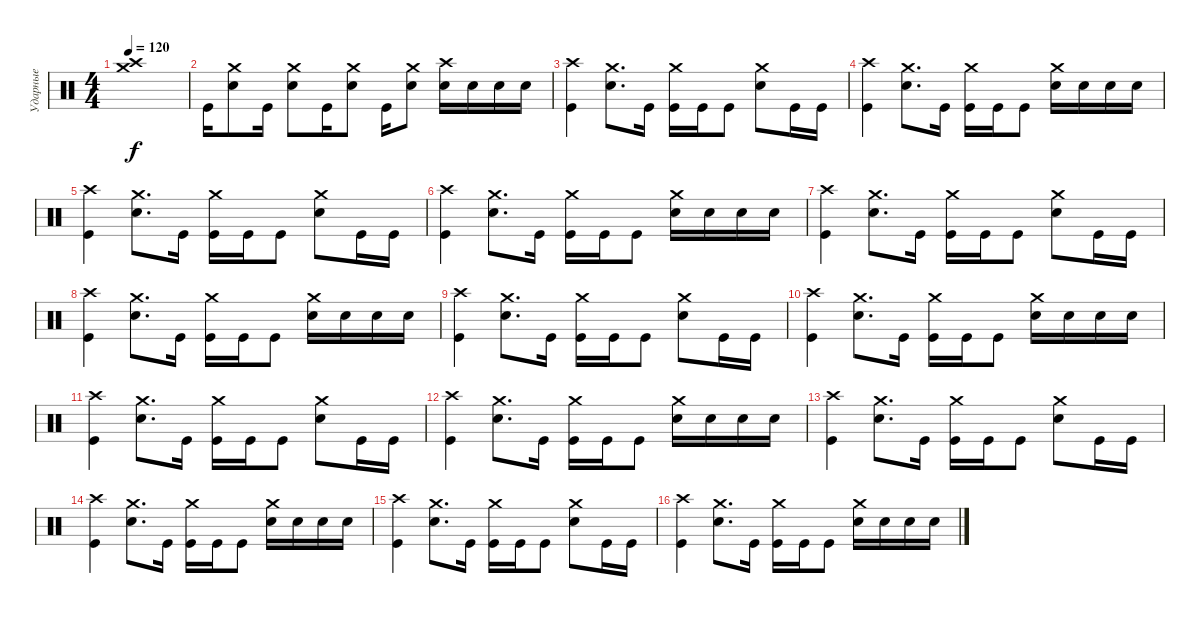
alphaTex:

\track ("Ударные" "Ударные") {instrument percussion}
\staff {score}
\articulation defaults
\ts (4 4)
\tempo 120
\clef neutral
\ks c
("Crash medium (hit)" "Crash high (hit)").1{dy f} |
"Kick (hit)".16 ("Snare (hit) 2" "Crash medium (hit)").8 "Kick (hit)".16 ("Snare (hit) 2" "Crash medium (hit)").8 "Kick (hit)".16 ("Snare (hit) 2" "Crash medium (hit)").8 "Kick (hit)".16 ("Snare (hit) 2" "Crash medium (hit)").8 ("Snare (hit) 2" "Crash high (hit)").16 "Snare (hit) 2".16 "Snare (hit) 2".16 "Snare (hit) 2".16 |
("Kick (hit)" "Crash high (hit)").4 ("Snare (hit) 2" "Crash medium (hit)").8{d} "Kick (hit)".16 ("Kick (hit)" "Crash medium (hit)").16 "Kick (hit)".16 "Kick (hit)".8 ("Snare (hit) 2" "Crash medium (hit)").8 "Kick (hit)".16 "Kick (hit)".16 |
("Kick (hit)" "Crash high (hit)").4 ("Snare (hit) 2" "Crash medium (hit)").8{d} "Kick (hit)".16 ("Kick (hit)" "Crash medium (hit)").16 "Kick (hit)".16 "Kick (hit)".8 ("Snare (hit) 2" "Crash medium (hit)").16 "Snare (hit) 2".16 "Snare (hit) 2".16 "Snare (hit) 2".16 |
("Kick (hit)" "Crash high (hit)").4 ("Snare (hit) 2" "Crash medium (hit)").8{d} "Kick (hit)".16 ("Kick (hit)" "Crash medium (hit)").16 "Kick (hit)".16 "Kick (hit)".8 ("Snare (hit) 2" "Crash medium (hit)").8 "Kick (hit)".16 "Kick (hit)".16 |
("Kick (hit)" "Crash high (hit)").4 ("Snare (hit) 2" "Crash medium (hit)").8{d} "Kick (hit)".16 ("Kick (hit)" "Crash medium (hit)").16 "Kick (hit)".16 "Kick (hit)".8 ("Snare (hit) 2" "Crash medium (hit)").16 "Snare (hit) 2".16 "Snare (hit) 2".16 "Snare (hit) 2".16 |
("Kick (hit)" "Crash high (hit)").4 ("Snare (hit) 2" "Crash medium (hit)").8{d} "Kick (hit)".16 ("Kick (hit)" "Crash medium (hit)").16 "Kick (hit)".16 "Kick (hit)".8 ("Snare (hit) 2" "Crash medium (hit)").8 "Kick (hit)".16 "Kick (hit)".16 |
("Kick (hit)" "Crash high (hit)").4 ("Snare (hit) 2" "Crash medium (hit)").8{d} "Kick (hit)".16 ("Kick (hit)" "Crash medium (hit)").16 "Kick (hit)".16 "Kick (hit)".8 ("Snare (hit) 2" "Crash medium (hit)").16 "Snare (hit) 2".16 "Snare (hit) 2".16 "Snare (hit) 2".16 |
("Kick (hit)" "Crash high (hit)").4 ("Snare (hit) 2" "Crash medium (hit)").8{d} "Kick (hit)".16 ("Kick (hit)" "Crash medium (hit)").16 "Kick (hit)".16 "Kick (hit)".8 ("Snare (hit) 2" "Crash medium (hit)").8 "Kick (hit)".16 "Kick (hit)".16 |
("Kick (hit)" "Crash high (hit)").4 ("Snare (hit) 2" "Crash medium (hit)").8{d} "Kick (hit)".16 ("Kick (hit)" "Crash medium (hit)").16 "Kick (hit)".16 "Kick (hit)".8 ("Snare (hit) 2" "Crash medium (hit)").16 "Snare (hit) 2".16 "Snare (hit) 2".16 "Snare (hit) 2".16 |
("Kick (hit)" "Crash high (hit)").4 ("Snare (hit) 2" "Crash medium (hit)").8{d} "Kick (hit)".16 ("Kick (hit)" "Crash medium (hit)").16 "Kick (hit)".16 "Kick (hit)".8 ("Snare (hit) 2" "Crash medium (hit)").8 "Kick (hit)".16 "Kick (hit)".16 |
("Kick (hit)" "Crash high (hit)").4 ("Snare (hit) 2" "Crash medium (hit)").8{d} "Kick (hit)".16 ("Kick (hit)" "Crash medium (hit)").16 "Kick (hit)".16 "Kick (hit)".8 ("Snare (hit) 2" "Crash medium (hit)").16 "Snare (hit) 2".16 "Snare (hit) 2".16 "Snare (hit) 2".16 |
("Kick (hit)" "Crash high (hit)").4 ("Snare (hit) 2" "Crash medium (hit)").8{d} "Kick (hit)".16 ("Kick (hit)" "Crash medium (hit)").16 "Kick (hit)".16 "Kick (hit)".8 ("Snare (hit) 2" "Crash medium (hit)").8 "Kick (hit)".16 "Kick (hit)".16 |
("Kick (hit)" "Crash high (hit)").4 ("Snare (hit) 2" "Crash medium (hit)").8{d} "Kick (hit)".16 ("Kick (hit)" "Crash medium (hit)").16 "Kick (hit)".16 "Kick (hit)".8 ("Snare (hit) 2" "Crash medium (hit)").16 "Snare (hit) 2".16 "Snare (hit) 2".16 "Snare (hit) 2".16 |
("Kick (hit)" "Crash high (hit)").4 ("Snare (hit) 2" "Crash medium (hit)").8{d} "Kick (hit)".16 ("Kick (hit)" "Crash medium (hit)").16 "Kick (hit)".16 "Kick (hit)".8 ("Snare (hit) 2" "Crash medium (hit)").8 "Kick (hit)".16 "Kick (hit)".16 |
("Kick (hit)" "Crash high (hit)").4 ("Snare (hit) 2" "Crash medium (hit)").8{d} "Kick (hit)".16 ("Kick (hit)" "Crash medium (hit)").16 "Kick (hit)".16 "Kick (hit)".8 ("Snare (hit) 2" "Crash medium (hit)").16 "Snare (hit) 2".16 "Snare (hit) 2".16 "Snare (hit) 2".16
